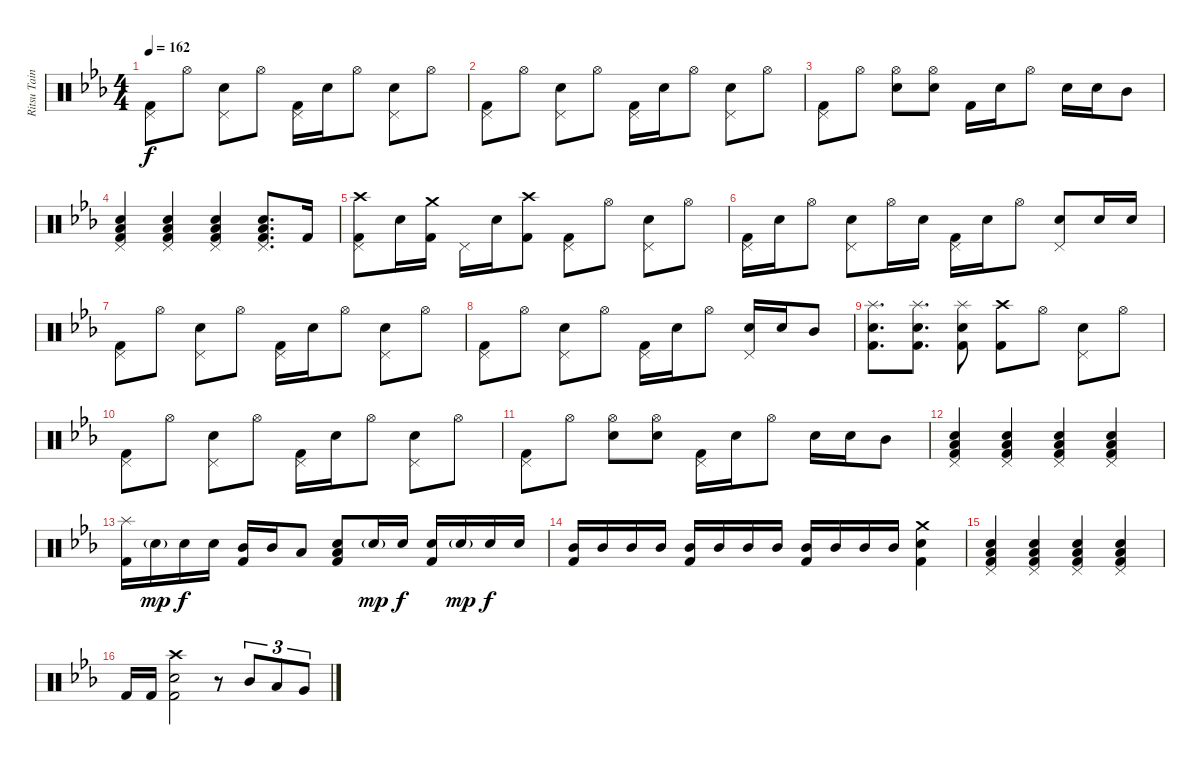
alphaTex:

\track ("Ritsu Tainaka" "Ritsu Tain") {instrument percussion}
\staff {score}
\articulation defaults
\ts (4 4)
\tempo 162
\clef neutral
\ks eb
("Pedal Hi-Hat (hit)" "Kick (hit) 2").8{dy f} "Hi-Hat (open)".8 ("Pedal Hi-Hat (hit)" "Electric Snare (hit)").8 "Hi-Hat (open)".8 ("Pedal Hi-Hat (hit)" "Kick (hit) 2").16 "Electric Snare (hit)".16 "Hi-Hat (open)".8 ("Pedal Hi-Hat (hit)" "Electric Snare (hit)").8 "Hi-Hat (open)".8 |
("Pedal Hi-Hat (hit)" "Kick (hit) 2").8 "Hi-Hat (open)".8 ("Pedal Hi-Hat (hit)" "Electric Snare (hit)").8 "Hi-Hat (open)".8 ("Pedal Hi-Hat (hit)" "Kick (hit) 2").16 "Electric Snare (hit)".16 "Hi-Hat (open)".8 ("Pedal Hi-Hat (hit)" "Electric Snare (hit)").8 "Hi-Hat (open)".8 |
("Pedal Hi-Hat (hit)" "Kick (hit) 2").8 "Hi-Hat (open)".8 ("Hi-Hat (open)" "Electric Snare (hit)").8 ("Hi-Hat (open)" "Electric Snare (hit)").8 "Kick (hit) 2".16 "Electric Snare (hit)".16 "Hi-Hat (open)".8 "Electric Snare (hit)".16 "Electric Snare (hit)".16 "Mid Tom (hit)".8 |
("Pedal Hi-Hat (hit)" "Electric Snare (hit)" "Low Floor Tom (hit)" "Kick (hit) 2").4 ("Pedal Hi-Hat (hit)" "Electric Snare (hit)" "Low Floor Tom (hit)" "Kick (hit) 2").4 ("Pedal Hi-Hat (hit)" "Electric Snare (hit)" "Low Floor Tom (hit)" "Kick (hit) 2").4 ("Pedal Hi-Hat (hit)" "Electric Snare (hit)" "Low Floor Tom (hit)" "Kick (hit) 2").8{d} "Kick (hit) 2".16 |
("Crash high (hit)" "Pedal Hi-Hat (hit)" "Kick (hit) 2").8 "Electric Snare (hit)".16 ("Crash medium (hit)" "Kick (hit) 2").16 "Pedal Hi-Hat (hit)".16 "Electric Snare (hit)".16 ("Crash high (hit)" "Kick (hit) 2").8 ("Pedal Hi-Hat (hit)" "Kick (hit) 2").8 "Hi-Hat (open)".8 ("Pedal Hi-Hat (hit)" "Electric Snare (hit)").8 "Hi-Hat (open)".8 |
("Pedal Hi-Hat (hit)" "Kick (hit) 2").16 "Electric Snare (hit)".16 "Hi-Hat (open)".8 ("Pedal Hi-Hat (hit)" "Electric Snare (hit)").8 "Hi-Hat (open)".16 "Electric Snare (hit)".16 ("Pedal Hi-Hat (hit)" "Kick (hit) 2").16 "Electric Snare (hit)".16 "Hi-Hat (open)".8 ("Pedal Hi-Hat (hit)" "Electric Snare (hit)").8 "Electric Snare (hit)".16 "Electric Snare (hit)".16 |
("Pedal Hi-Hat (hit)" "Kick (hit) 2").8 "Hi-Hat (open)".8 ("Pedal Hi-Hat (hit)" "Electric Snare (hit)").8 "Hi-Hat (open)".8 ("Pedal Hi-Hat (hit)" "Kick (hit) 2").16 "Electric Snare (hit)".16 "Hi-Hat (open)".8 ("Pedal Hi-Hat (hit)" "Electric Snare (hit)").8 "Hi-Hat (open)".8 |
("Pedal Hi-Hat (hit)" "Kick (hit) 2").8 "Hi-Hat (open)".8 ("Pedal Hi-Hat (hit)" "Electric Snare (hit)").8 "Hi-Hat (open)".8 ("Pedal Hi-Hat (hit)" "Kick (hit) 2").16 "Electric Snare (hit)".16 "Hi-Hat (open)".8 ("Pedal Hi-Hat (hit)" "Electric Snare (hit)").16 "Electric Snare (hit)".16 "Mid Tom (hit)".8 |
("Splash (hit)" "Electric Snare (hit)" "Kick (hit) 2").8{d} ("Splash (hit)" "Electric Snare (hit)" "Kick (hit) 2").8{d} ("Splash (hit)" "Electric Snare (hit)" "Kick (hit) 2").8 ("Crash high (hit)" "Kick (hit) 2").8 "Hi-Hat (open)".8 ("Pedal Hi-Hat (hit)" "Electric Snare (hit)").8 "Hi-Hat (open)".8 |
("Pedal Hi-Hat (hit)" "Kick (hit) 2").8 "Hi-Hat (open)".8 ("Pedal Hi-Hat (hit)" "Electric Snare (hit)").8 "Hi-Hat (open)".8 ("Pedal Hi-Hat (hit)" "Kick (hit) 2").16 "Electric Snare (hit)".16 "Hi-Hat (open)".8 ("Pedal Hi-Hat (hit)" "Electric Snare (hit)").8 "Hi-Hat (open)".8 |
("Pedal Hi-Hat (hit)" "Kick (hit) 2").8 "Hi-Hat (open)".8 ("Hi-Hat (open)" "Electric Snare (hit)").8 ("Hi-Hat (open)" "Electric Snare (hit)").8 ("Pedal Hi-Hat (hit)" "Kick (hit) 2").16 "Electric Snare (hit)".16 "Hi-Hat (open)".8 "Electric Snare (hit)".16 "Electric Snare (hit)".16 "Mid Tom (hit)".8 |
("Pedal Hi-Hat (hit)" "Electric Snare (hit)" "Low Floor Tom (hit)" "Kick (hit) 2").4 ("Pedal Hi-Hat (hit)" "Electric Snare (hit)" "Low Floor Tom (hit)" "Kick (hit) 2").4 ("Pedal Hi-Hat (hit)" "Electric Snare (hit)" "Low Floor Tom (hit)" "Kick (hit) 2").4 ("Pedal Hi-Hat (hit)" "Electric Snare (hit)" "Low Floor Tom (hit)" "Kick (hit) 2").4 |
("Splash (hit)" "Kick (hit) 2").16 "Electric Snare (hit)"{g}.16{dy mp} "Electric Snare (hit)".16{dy f} "Electric Snare (hit)".16 ("Mid Tom (hit)" "Kick (hit) 2").16 "Mid Tom (hit)".16 "Low Tom (hit)".8 ("Electric Snare (hit)" "Low Floor Tom (hit)" "Kick (hit) 2").8 "Electric Snare (hit)"{g}.16{dy mp} "Electric Snare (hit)".16{dy f} ("Electric Snare (hit)" "Kick (hit) 2").16 "Electric Snare (hit)"{g}.16{dy mp} "Electric Snare (hit)".16{dy f} "Electric Snare (hit)".16 |
("Mid Tom (hit)" "Kick (hit) 2").16 "Mid Tom (hit)".16 "Mid Tom (hit)".16 "Mid Tom (hit)".16 ("Mid Tom (hit)" "Kick (hit) 2").16 "Mid Tom (hit)".16 "Mid Tom (hit)".16 "Mid Tom (hit)".16 ("Mid Tom (hit)" "Kick (hit) 2").16 "Mid Tom (hit)".16 "Mid Tom (hit)".16 "Mid Tom (hit)".16 ("Crash medium (hit)" "Electric Snare (hit)" "Kick (hit) 2").4 |
("Pedal Hi-Hat (hit)" "Electric Snare (hit)" "Low Floor Tom (hit)" "Kick (hit) 2").4 ("Pedal Hi-Hat (hit)" "Electric Snare (hit)" "Low Floor Tom (hit)" "Kick (hit) 2").4 ("Pedal Hi-Hat (hit)" "Electric Snare (hit)" "Low Floor Tom (hit)" "Kick (hit) 2").4 ("Pedal Hi-Hat (hit)" "Electric Snare (hit)" "Low Floor Tom (hit)" "Kick (hit) 2").4 |
"Kick (hit) 2".16 "Kick (hit) 2".16 ("Crash high (hit)" "Electric Snare (hit)" "Kick (hit) 2").2 r.8 "Mid Tom (hit)".8{tu (3 2)} "Low Tom (hit)".8{tu (3 2)} "Very Low Tom (hit)".8{tu (3 2)}
